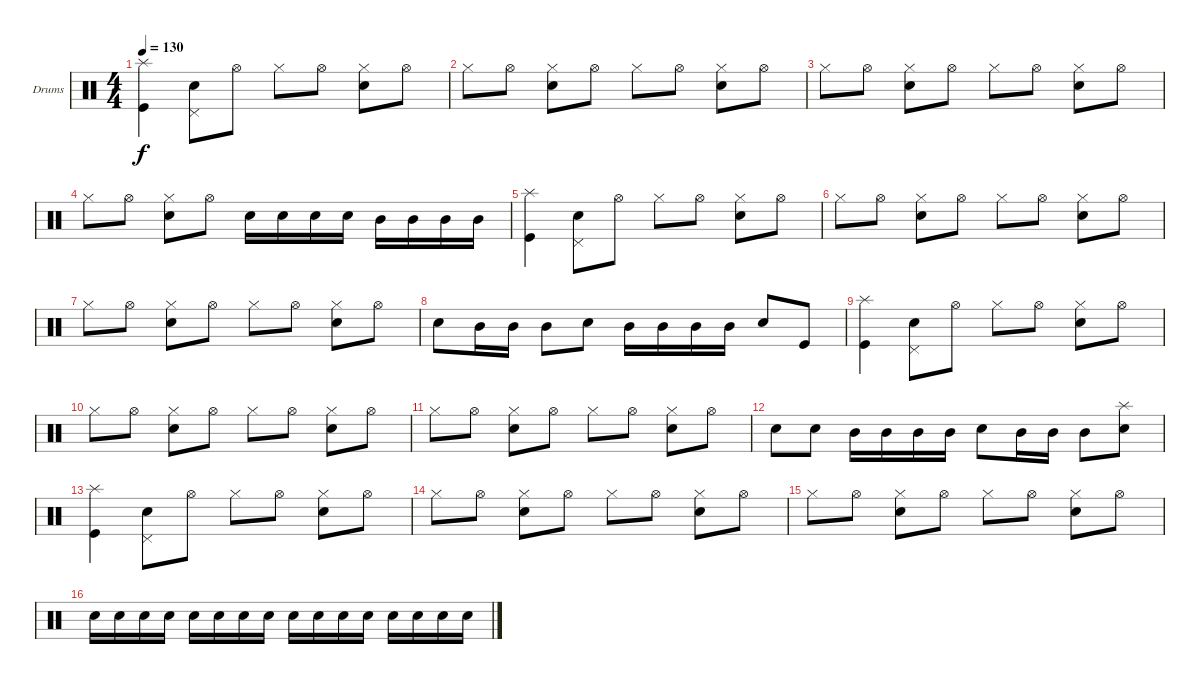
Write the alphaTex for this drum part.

\defaultSystemsLayout 4
\bracketExtendMode groupsimilarinstruments
\firstSystemTrackNameOrientation horizontal
\otherSystemsTrackNameOrientation horizontal
\track ("Inazawa" "Drums") {instrument percussion}
\staff {score}
\articulation defaults
\ts (4 4)
\tempo 130
\clef neutral
\ks c
("Kick (hit)" "Splash (hit)").4{dy f} ("Snare (hit) 2" "Pedal Hi-Hat (hit)").8 "Hi-Hat (open)".8 "Hi-Hat (closed)".8 "Hi-Hat (open)".8 ("Hi-Hat (closed)" "Snare (hit) 2").8 "Hi-Hat (open)".8 |
"Hi-Hat (closed)".8 "Hi-Hat (open)".8 ("Hi-Hat (closed)" "Snare (hit) 2").8 "Hi-Hat (open)".8 "Hi-Hat (closed)".8 "Hi-Hat (open)".8 ("Hi-Hat (closed)" "Snare (hit) 2").8 "Hi-Hat (open)".8 |
"Hi-Hat (closed)".8 "Hi-Hat (open)".8 ("Hi-Hat (closed)" "Snare (hit) 2").8 "Hi-Hat (open)".8 "Hi-Hat (closed)".8 "Hi-Hat (open)".8 ("Hi-Hat (closed)" "Snare (hit) 2").8 "Hi-Hat (open)".8 |
"Hi-Hat (closed)".8 "Hi-Hat (open)".8 ("Hi-Hat (closed)" "Snare (hit) 2").8 "Hi-Hat (open)".8 "Snare (hit) 2".16 "Snare (hit) 2".16 "Snare (hit) 2".16 "Snare (hit) 2".16 "Mid Tom (hit)".16 "Mid Tom (hit)".16 "Mid Tom (hit)".16 "Mid Tom (hit)".16 |
("Kick (hit)" "Splash (hit)").4 ("Snare (hit) 2" "Pedal Hi-Hat (hit)").8 "Hi-Hat (open)".8 "Hi-Hat (closed)".8 "Hi-Hat (open)".8 ("Hi-Hat (closed)" "Snare (hit) 2").8 "Hi-Hat (open)".8 |
"Hi-Hat (closed)".8 "Hi-Hat (open)".8 ("Hi-Hat (closed)" "Snare (hit) 2").8 "Hi-Hat (open)".8 "Hi-Hat (closed)".8 "Hi-Hat (open)".8 ("Hi-Hat (closed)" "Snare (hit) 2").8 "Hi-Hat (open)".8 |
"Hi-Hat (closed)".8 "Hi-Hat (open)".8 ("Hi-Hat (closed)" "Snare (hit) 2").8 "Hi-Hat (open)".8 "Hi-Hat (closed)".8 "Hi-Hat (open)".8 ("Hi-Hat (closed)" "Snare (hit) 2").8 "Hi-Hat (open)".8 |
"Snare (hit) 2".8 "Mid Tom (hit)".16 "Mid Tom (hit)".16 "Mid Tom (hit)".8 "Snare (hit) 2".8 "Mid Tom (hit)".16 "Mid Tom (hit)".16 "Mid Tom (hit)".16 "Mid Tom (hit)".16 "Snare (hit) 2".8 "Kick (hit)".8 |
("Kick (hit)" "Splash (hit)").4 ("Snare (hit) 2" "Pedal Hi-Hat (hit)").8 "Hi-Hat (open)".8 "Hi-Hat (closed)".8 "Hi-Hat (open)".8 ("Hi-Hat (closed)" "Snare (hit) 2").8 "Hi-Hat (open)".8 |
"Hi-Hat (closed)".8 "Hi-Hat (open)".8 ("Hi-Hat (closed)" "Snare (hit) 2").8 "Hi-Hat (open)".8 "Hi-Hat (closed)".8 "Hi-Hat (open)".8 ("Hi-Hat (closed)" "Snare (hit) 2").8 "Hi-Hat (open)".8 |
"Hi-Hat (closed)".8 "Hi-Hat (open)".8 ("Hi-Hat (closed)" "Snare (hit) 2").8 "Hi-Hat (open)".8 "Hi-Hat (closed)".8 "Hi-Hat (open)".8 ("Hi-Hat (closed)" "Snare (hit) 2").8 "Hi-Hat (open)".8 |
"Snare (hit) 2".8 "Snare (hit) 2".8 "Mid Tom (hit)".16 "Mid Tom (hit)".16 "Mid Tom (hit)".16 "Mid Tom (hit)".16 "Snare (hit) 2".8 "Mid Tom (hit)".16 "Mid Tom (hit)".16 "Mid Tom (hit)".8 ("Snare (hit) 2" "Splash (hit)").8 |
("Kick (hit)" "Splash (hit)").4 ("Snare (hit) 2" "Pedal Hi-Hat (hit)").8 "Hi-Hat (open)".8 "Hi-Hat (closed)".8 "Hi-Hat (open)".8 ("Hi-Hat (closed)" "Snare (hit) 2").8 "Hi-Hat (open)".8 |
"Hi-Hat (closed)".8 "Hi-Hat (open)".8 ("Hi-Hat (closed)" "Snare (hit) 2").8 "Hi-Hat (open)".8 "Hi-Hat (closed)".8 "Hi-Hat (open)".8 ("Hi-Hat (closed)" "Snare (hit) 2").8 "Hi-Hat (open)".8 |
"Hi-Hat (closed)".8 "Hi-Hat (open)".8 ("Hi-Hat (closed)" "Snare (hit) 2").8 "Hi-Hat (open)".8 "Hi-Hat (closed)".8 "Hi-Hat (open)".8 ("Hi-Hat (closed)" "Snare (hit) 2").8 "Hi-Hat (open)".8 |
"Snare (hit) 2".16 "Snare (hit) 2".16 "Snare (hit) 2".16 "Snare (hit) 2".16 "Snare (hit) 2".16 "Snare (hit) 2".16 "Snare (hit) 2".16 "Snare (hit) 2".16 "Snare (hit) 2".16 "Snare (hit) 2".16 "Snare (hit) 2".16 "Snare (hit) 2".16 "Snare (hit) 2".16 "Snare (hit) 2".16 "Snare (hit) 2".16 "Snare (hit) 2".16
